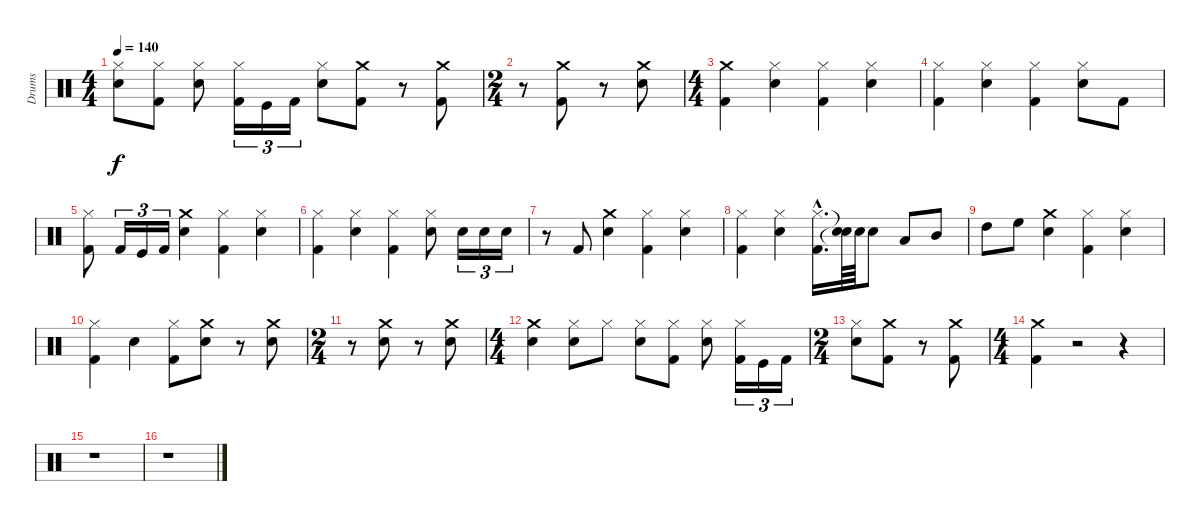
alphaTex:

\track ("Drums" "Drums") {instrument percussion}
\staff {score}
\articulation defaults
\ts (4 4)
\tempo 140
\clef neutral
\ks c
("Hi-Hat (closed)" "Snare (hit) 2").8{dy f} ("Kick (hit) 2" "Hi-Hat (closed)").8 ("Snare (hit) 2" "Hi-Hat (closed)").8 ("Hi-Hat (closed)" "Kick (hit) 2").16{tu (3 2)} "Kick (hit)".16{tu (3 2)} "Kick (hit) 2".16{tu (3 2)} ("Snare (hit) 2" "Hi-Hat (closed)").8 ("Crash medium (hit)" "Kick (hit) 2").8 r.8 ("Crash medium (hit)" "Kick (hit) 2").8 |
\ts (2 4)
r.8 ("Crash medium (hit)" "Kick (hit) 2").8 r.8 ("Snare (hit) 2" "Crash medium (hit)").8 |
\ts (4 4)
("Kick (hit) 2" "Crash medium (hit)").4 ("Hi-Hat (closed)" "Snare (hit) 2").4 ("Hi-Hat (closed)" "Kick (hit) 2").4 ("Snare (hit) 2" "Hi-Hat (closed)").4 |
("Hi-Hat (closed)" "Kick (hit) 2").4 ("Snare (hit) 2" "Hi-Hat (closed)").4 ("Hi-Hat (closed)" "Kick (hit) 2").4 ("Snare (hit) 2" "Hi-Hat (closed)").8 "Kick (hit) 2".8 |
("Hi-Hat (closed)" "Kick (hit) 2").8 "Kick (hit) 2".16{tu (3 2)} "Kick (hit)".16{tu (3 2)} "Kick (hit) 2".16{tu (3 2)} ("Crash medium (hit)" "Snare (hit) 2").4 ("Kick (hit) 2" "Hi-Hat (closed)").4 ("Hi-Hat (closed)" "Snare (hit) 2").4 |
("Kick (hit) 2" "Hi-Hat (closed)").4 ("Hi-Hat (closed)" "Snare (hit) 2").4 ("Kick (hit) 2" "Hi-Hat (closed)").4 ("Snare (hit) 2" "Hi-Hat (closed)").8 "Snare (hit) 2".16{tu (3 2)} "Snare (hit) 2".16{tu (3 2)} "Snare (hit) 2".16{tu (3 2)} |
r.8 "Kick (hit) 2".8 ("Snare (hit) 2" "Crash medium (hit)").4 ("Hi-Hat (closed)" "Kick (hit) 2").4 ("Snare (hit) 2" "Hi-Hat (closed)").4 |
("Hi-Hat (closed)" "Kick (hit) 2").4 ("Snare (hit) 2" "Hi-Hat (closed)").4 ("Hi-Hat (closed)"{hac} "Kick (hit) 2"{hac}).16{d} ("Snare (hit)"{t} "Snare (hit)"{t}).64 "Snare (hit) 2".64 "Snare (hit) 2".8 "Low Tom (hit)".8 "Mid Tom (hit)".8 |
"High Tom (hit)".8 "High Floor Tom (hit)".8 ("Snare (hit) 2" "Crash medium (hit)").4 ("Hi-Hat (closed)" "Kick (hit) 2").4 ("Snare (hit) 2" "Hi-Hat (closed)").4 |
("Kick (hit) 2" "Hi-Hat (closed)").4 "Snare (hit) 2".4 ("Hi-Hat (closed)" "Kick (hit) 2").8 ("Crash medium (hit)" "Snare (hit) 2").8 r.8 ("Crash medium (hit)" "Snare (hit) 2").8 |
\ts (2 4)
r.8 ("Snare (hit) 2" "Crash medium (hit)").8 r.8 ("Snare (hit) 2" "Crash medium (hit)").8 |
\ts (4 4)
("Snare (hit) 2" "Crash medium (hit)").4 ("Hi-Hat (closed)" "Snare (hit) 2").8 "Hi-Hat (closed)".8 ("Hi-Hat (closed)" "Snare (hit) 2").8 ("Kick (hit) 2" "Hi-Hat (closed)").8 ("Hi-Hat (closed)" "Snare (hit) 2").8 ("Kick (hit) 2" "Hi-Hat (closed)").16{tu (3 2)} "Kick (hit)".16{tu (3 2)} "Kick (hit) 2".16{tu (3 2)} |
\ts (2 4)
("Hi-Hat (closed)" "Snare (hit) 2").8 ("Kick (hit) 2" "Crash medium (hit)").8 r.8 ("Crash medium (hit)" "Kick (hit) 2").8 |
\ts (4 4)
("Kick (hit) 2" "Crash medium (hit)").4 r.2 r.4 |
r.1 |
r.1
